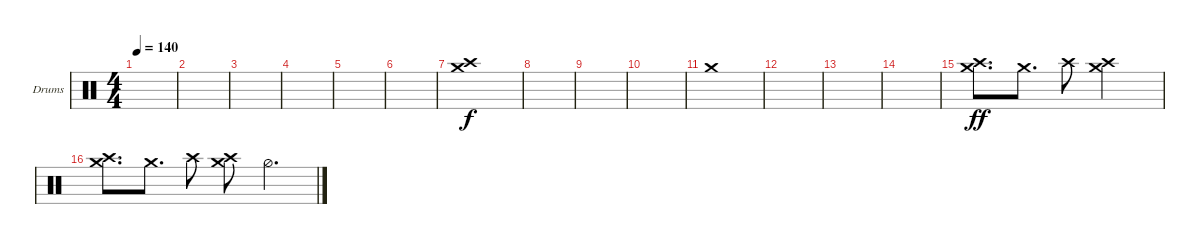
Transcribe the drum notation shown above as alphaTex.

\defaultSystemsLayout 4
\bracketExtendMode groupsimilarinstruments
\firstSystemTrackNameOrientation horizontal
\otherSystemsTrackNameOrientation horizontal
\track ("Helders" "Drums") {instrument percussion}
\staff {score}
\articulation defaults
\ts (4 4)
\tempo 140
\clef neutral
\ks c
|
|
|
|
|
|
("Crash high (hit)" "Crash medium (hit)").1 |
|
|
|
"Crash medium (hit)".1 |
|
|
|
("Crash high (hit)" "Crash medium (hit)").8{d dy ff} "Crash medium (hit)".8{d} "Crash high (hit)".8 ("Crash medium (hit)" "Crash high (hit)").2 |
("Crash high (hit)" "Crash medium (hit)").8{d} "Crash medium (hit)".8{d} "Crash high (hit)".8 ("Crash medium (hit)" "Crash high (hit)").8 "Hi-Hat (half)".4{d}
